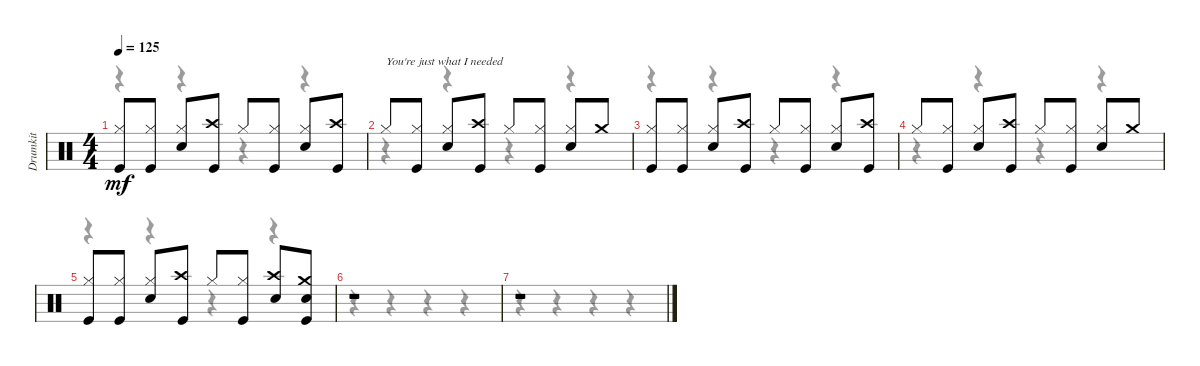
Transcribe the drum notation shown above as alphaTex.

\track ("Drumkit" "Drumkit") {instrument percussion}
\staff {score}
\articulation defaults
\voice
\ts (4 4)
\tempo 125
\clef neutral
\ks c
("Hi-Hat (closed)" "Kick (hit)").8{dy mf} ("Hi-Hat (closed)" "Kick (hit)").8 ("Hi-Hat (closed)" "Snare (hit) 2").8 ("Kick (hit)" "Crash high (hit)").8 "Hi-Hat (closed)".8 ("Hi-Hat (closed)" "Kick (hit)").8 ("Hi-Hat (closed)" "Snare (hit) 2").8 ("Crash high (hit)" "Kick (hit)").8 |
"Hi-Hat (closed)".8{txt "You're just what I needed"} ("Hi-Hat (closed)" "Kick (hit)").8 ("Hi-Hat (closed)" "Snare (hit) 2").8 ("Kick (hit)" "Crash high (hit)").8 "Hi-Hat (closed)".8 ("Hi-Hat (closed)" "Kick (hit)").8 ("Hi-Hat (closed)" "Snare (hit) 2").8 "Crash medium (hit)".8 |
("Hi-Hat (closed)" "Kick (hit)").8 ("Hi-Hat (closed)" "Kick (hit)").8 ("Hi-Hat (closed)" "Snare (hit) 2").8 ("Crash high (hit)" "Kick (hit)").8 "Hi-Hat (closed)".8 ("Hi-Hat (closed)" "Kick (hit)").8 ("Hi-Hat (closed)" "Snare (hit) 2").8 ("Crash high (hit)" "Kick (hit)").8 |
"Hi-Hat (closed)".8 ("Hi-Hat (closed)" "Kick (hit)").8 ("Hi-Hat (closed)" "Snare (hit) 2").8 ("Crash high (hit)" "Kick (hit)").8 "Hi-Hat (closed)".8 ("Hi-Hat (closed)" "Kick (hit)").8 ("Hi-Hat (closed)" "Snare (hit) 2").8 "Crash medium (hit)".8 |
("Hi-Hat (closed)" "Kick (hit)").8 ("Hi-Hat (closed)" "Kick (hit)").8 ("Hi-Hat (closed)" "Snare (hit) 2").8 ("Crash high (hit)" "Kick (hit)").8 "Hi-Hat (closed)".8 ("Hi-Hat (closed)" "Kick (hit)").8 ("Snare (hit) 2" "Crash high (hit)").8 ("Kick (hit)" "Crash medium (hit)" "Snare (hit) 2").8 |
r.1 |
r.1
\voice
\clef neutral
\ottava regular
\simile none
\ks c
r.4{dy f} r.4 r.4 r.4 |
r.4 r.4 r.4 r.4 |
r.4 r.4 r.4 r.4 |
r.4 r.4 r.4 r.4 |
r.4 r.4 r.4 r.4 |
r.4 r.4 r.4 r.4 |
r.4 r.4 r.4 r.4
